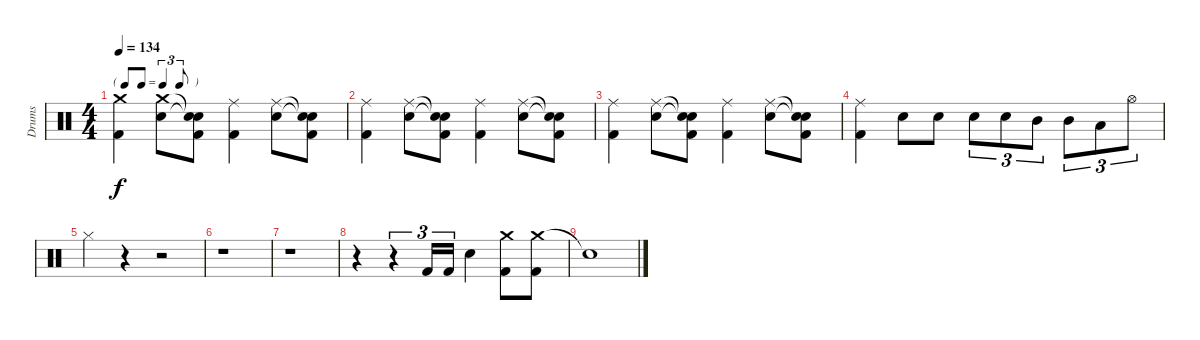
\track ("Drums" "Drums") {instrument percussion}
\staff {score}
\articulation defaults
\ts (4 4)
\tf triplet8th
\tempo 134
\clef neutral
\ks c
("Crash medium (hit)" "Kick (hit) 2").4{dy f} ("Crash medium (hit)" "Electric Snare (hit)").8 ("Snare (hit)"{t} "Snare (hit)"{t} "Kick (hit) 2").8 ("Ride (middle)" "Kick (hit) 2").4 ("Ride (middle)" "Electric Snare (hit)").8 ("Snare (hit)"{t} "Snare (hit)"{t} "Kick (hit) 2").8 |
("Ride (middle)" "Kick (hit) 2").4 ("Ride (middle)" "Electric Snare (hit)").8 ("Snare (hit)"{t} "Snare (hit)"{t} "Kick (hit) 2").8 ("Ride (middle)" "Kick (hit) 2").4 ("Ride (middle)" "Electric Snare (hit)").8 ("Snare (hit)"{t} "Snare (hit)"{t} "Kick (hit) 2").8 |
("Ride (middle)" "Kick (hit) 2").4 ("Ride (middle)" "Electric Snare (hit)").8 ("Snare (hit)"{t} "Snare (hit)"{t} "Kick (hit) 2").8 ("Ride (middle)" "Kick (hit) 2").4 ("Ride (middle)" "Electric Snare (hit)").8 ("Snare (hit)"{t} "Snare (hit)"{t} "Kick (hit) 2").8 |
("Ride (middle)" "Kick (hit) 2").4 "Electric Snare (hit)".8 "Electric Snare (hit)".8 "Electric Snare (hit)".8{tu (3 2)} "Electric Snare (hit)".8{tu (3 2)} "Mid Tom (hit)".8{tu (3 2)} "Mid Tom (hit)".8{tu (3 2)} "Low Tom (hit)".8{tu (3 2)} "Hi-Hat (open)".8{tu (3 2)} |
"Hi-Hat (closed)".4 r.4 r.2 |
r.1 |
r.1 |
r.4 r.4{tu (3 2)} "Kick (hit) 2".16{tu (3 2)} "Kick (hit) 2".16{tu (3 2)} "Electric Snare (hit)".4 ("Crash medium (hit)" "Kick (hit) 2").8 ("Crash medium (hit)" "Kick (hit) 2").8 |
"Snare (hit)"{t}.1
